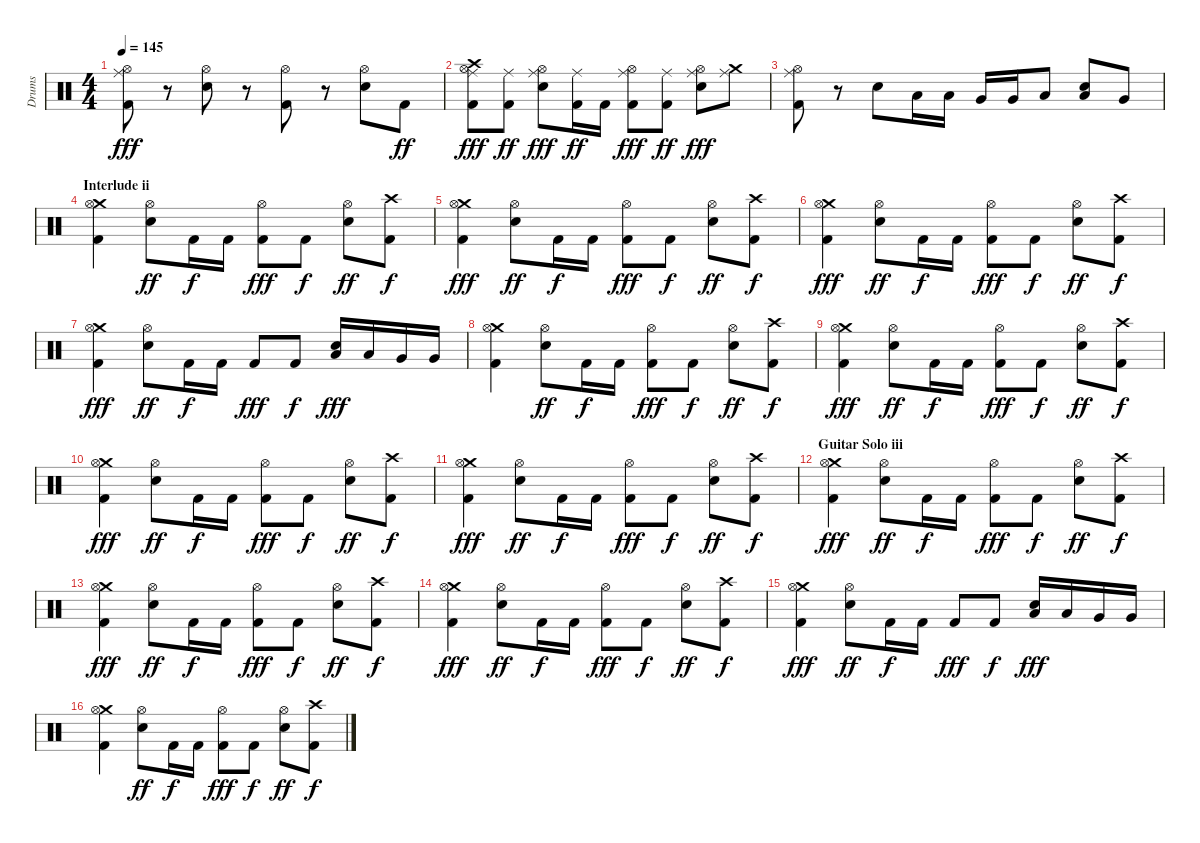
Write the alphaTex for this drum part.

\track ("Drums" "Drums") {instrument percussion}
\staff {score}
\articulation defaults
\ts (4 4)
\tempo 145
\clef neutral
\ks c
("Ride (middle)" "Hi-Hat (open)" "Kick (hit) 2").8{dy fff} r.8 ("Hi-Hat (open)" "Snare (hit) 2").8 r.8 ("Hi-Hat (open)" "Kick (hit) 2").8 r.8 ("Hi-Hat (open)" "Snare (hit) 2").8 "Kick (hit) 2".8{dy ff} |
("Ride (middle)" "Crash high (hit)" "Hi-Hat (open)" "Kick (hit) 2").8{dy fff} ("Ride (middle)" "Kick (hit) 2").8{dy ff} ("Ride (middle)" "Hi-Hat (open)" "Snare (hit) 2").8{dy fff} ("Ride (middle)" "Kick (hit) 2").16{dy ff} "Kick (hit) 2".16 ("Ride (middle)" "Hi-Hat (open)" "Kick (hit) 2").8{dy fff} ("Ride (middle)" "Kick (hit) 2").8{dy ff} ("Ride (middle)" "Hi-Hat (open)" "Snare (hit) 2").8{dy fff} ("Ride (middle)" "Crash medium (hit)").8 |
("Ride (middle)" "Hi-Hat (open)" "Kick (hit) 2").8 r.8 "Snare (hit) 2".8 "Low Tom (hit)".16 "Low Tom (hit)".16 "Very Low Tom (hit)".16 "Very Low Tom (hit)".16 "Low Floor Tom (hit)".8 ("Low Tom (hit)" "Snare (hit) 2").8 "Very Low Tom (hit)".8 |
\section ("" "Interlude ii")
("Crash medium (hit)" "Hi-Hat (open)" "Kick (hit) 2").4 ("Hi-Hat (open)" "Snare (hit) 2").8{dy ff} "Kick (hit) 2".16{dy f} "Kick (hit) 2".16 ("Hi-Hat (open)" "Kick (hit) 2").8{dy fff} "Kick (hit) 2".8{dy f} ("Hi-Hat (open)" "Snare (hit) 2").8{dy ff} ("Crash high (hit)" "Kick (hit) 2").8{dy f} |
("Crash medium (hit)" "Hi-Hat (open)" "Kick (hit) 2").4{dy fff} ("Hi-Hat (open)" "Snare (hit) 2").8{dy ff} "Kick (hit) 2".16{dy f} "Kick (hit) 2".16 ("Hi-Hat (open)" "Kick (hit) 2").8{dy fff} "Kick (hit) 2".8{dy f} ("Hi-Hat (open)" "Snare (hit) 2").8{dy ff} ("Crash high (hit)" "Kick (hit) 2").8{dy f} |
("Crash medium (hit)" "Hi-Hat (open)" "Kick (hit) 2").4{dy fff} ("Hi-Hat (open)" "Snare (hit) 2").8{dy ff} "Kick (hit) 2".16{dy f} "Kick (hit) 2".16 ("Hi-Hat (open)" "Kick (hit) 2").8{dy fff} "Kick (hit) 2".8{dy f} ("Hi-Hat (open)" "Snare (hit) 2").8{dy ff} ("Crash high (hit)" "Kick (hit) 2").8{dy f} |
("Crash medium (hit)" "Hi-Hat (open)" "Kick (hit) 2").4{dy fff} ("Hi-Hat (open)" "Snare (hit) 2").8{dy ff} "Kick (hit) 2".16{dy f} "Kick (hit) 2".16 "Kick (hit) 2".8{dy fff} "Kick (hit) 2".8{dy f} ("Low Tom (hit)" "Snare (hit) 2").16{dy fff} "Low Tom (hit)".16 "Very Low Tom (hit)".16 "Very Low Tom (hit)".16 |
("Crash medium (hit)" "Hi-Hat (open)" "Kick (hit) 2").4 ("Hi-Hat (open)" "Snare (hit) 2").8{dy ff} "Kick (hit) 2".16{dy f} "Kick (hit) 2".16 ("Hi-Hat (open)" "Kick (hit) 2").8{dy fff} "Kick (hit) 2".8{dy f} ("Hi-Hat (open)" "Snare (hit) 2").8{dy ff} ("Crash high (hit)" "Kick (hit) 2").8{dy f} |
("Crash medium (hit)" "Hi-Hat (open)" "Kick (hit) 2").4{dy fff} ("Hi-Hat (open)" "Snare (hit) 2").8{dy ff} "Kick (hit) 2".16{dy f} "Kick (hit) 2".16 ("Hi-Hat (open)" "Kick (hit) 2").8{dy fff} "Kick (hit) 2".8{dy f} ("Hi-Hat (open)" "Snare (hit) 2").8{dy ff} ("Crash high (hit)" "Kick (hit) 2").8{dy f} |
("Crash medium (hit)" "Hi-Hat (open)" "Kick (hit) 2").4{dy fff} ("Hi-Hat (open)" "Snare (hit) 2").8{dy ff} "Kick (hit) 2".16{dy f} "Kick (hit) 2".16 ("Hi-Hat (open)" "Kick (hit) 2").8{dy fff} "Kick (hit) 2".8{dy f} ("Hi-Hat (open)" "Snare (hit) 2").8{dy ff} ("Crash high (hit)" "Kick (hit) 2").8{dy f} |
("Crash medium (hit)" "Hi-Hat (open)" "Kick (hit) 2").4{dy fff} ("Hi-Hat (open)" "Snare (hit) 2").8{dy ff} "Kick (hit) 2".16{dy f} "Kick (hit) 2".16 ("Hi-Hat (open)" "Kick (hit) 2").8{dy fff} "Kick (hit) 2".8{dy f} ("Hi-Hat (open)" "Snare (hit) 2").8{dy ff} ("Crash high (hit)" "Kick (hit) 2").8{dy f} |
\section ("" "Guitar Solo iii")
("Crash medium (hit)" "Hi-Hat (open)" "Kick (hit) 2").4{dy fff} ("Hi-Hat (open)" "Snare (hit) 2").8{dy ff} "Kick (hit) 2".16{dy f} "Kick (hit) 2".16 ("Hi-Hat (open)" "Kick (hit) 2").8{dy fff} "Kick (hit) 2".8{dy f} ("Hi-Hat (open)" "Snare (hit) 2").8{dy ff} ("Crash high (hit)" "Kick (hit) 2").8{dy f} |
("Crash medium (hit)" "Hi-Hat (open)" "Kick (hit) 2").4{dy fff} ("Hi-Hat (open)" "Snare (hit) 2").8{dy ff} "Kick (hit) 2".16{dy f} "Kick (hit) 2".16 ("Hi-Hat (open)" "Kick (hit) 2").8{dy fff} "Kick (hit) 2".8{dy f} ("Hi-Hat (open)" "Snare (hit) 2").8{dy ff} ("Crash high (hit)" "Kick (hit) 2").8{dy f} |
("Crash medium (hit)" "Hi-Hat (open)" "Kick (hit) 2").4{dy fff} ("Hi-Hat (open)" "Snare (hit) 2").8{dy ff} "Kick (hit) 2".16{dy f} "Kick (hit) 2".16 ("Hi-Hat (open)" "Kick (hit) 2").8{dy fff} "Kick (hit) 2".8{dy f} ("Hi-Hat (open)" "Snare (hit) 2").8{dy ff} ("Crash high (hit)" "Kick (hit) 2").8{dy f} |
("Crash medium (hit)" "Hi-Hat (open)" "Kick (hit) 2").4{dy fff} ("Hi-Hat (open)" "Snare (hit) 2").8{dy ff} "Kick (hit) 2".16{dy f} "Kick (hit) 2".16 "Kick (hit) 2".8{dy fff} "Kick (hit) 2".8{dy f} ("Low Tom (hit)" "Snare (hit) 2").16{dy fff} "Low Tom (hit)".16 "Very Low Tom (hit)".16 "Very Low Tom (hit)".16 |
("Crash medium (hit)" "Hi-Hat (open)" "Kick (hit) 2").4 ("Hi-Hat (open)" "Snare (hit) 2").8{dy ff} "Kick (hit) 2".16{dy f} "Kick (hit) 2".16 ("Hi-Hat (open)" "Kick (hit) 2").8{dy fff} "Kick (hit) 2".8{dy f} ("Hi-Hat (open)" "Snare (hit) 2").8{dy ff} ("Crash high (hit)" "Kick (hit) 2").8{dy f}
